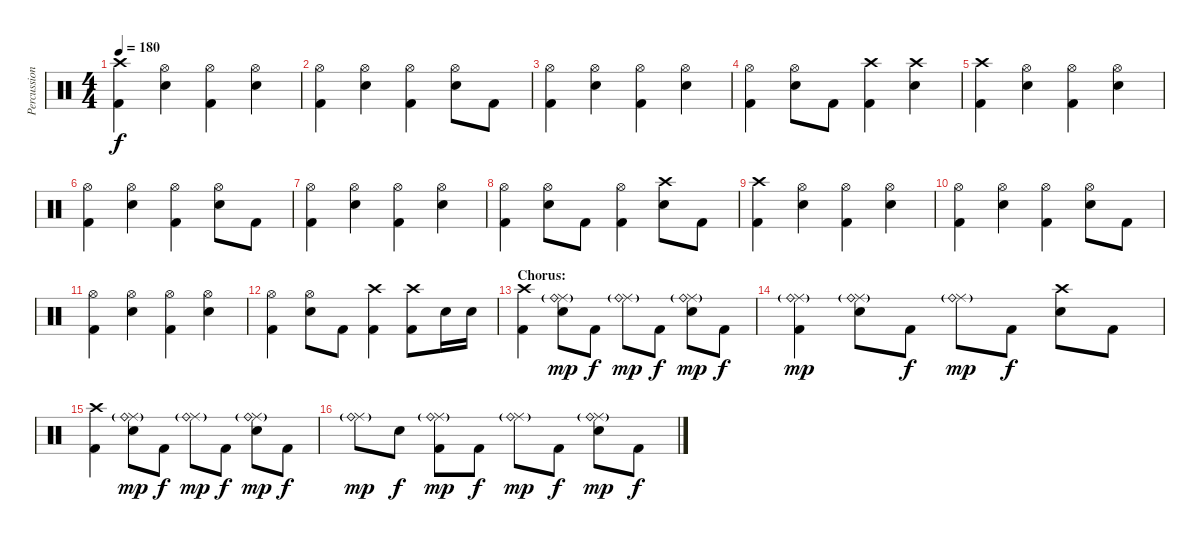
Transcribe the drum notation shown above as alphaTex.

\track ("Percussion" "Percussion") {instrument percussion}
\staff {score}
\articulation defaults
\ts (4 4)
\tempo 180
\clef neutral
\ks c
("Crash high (hit)" "Kick (hit) 2").4{dy f} ("Hi-Hat (open)" "Electric Snare (hit)").4 ("Hi-Hat (open)" "Kick (hit) 2").4 ("Hi-Hat (open)" "Electric Snare (hit)").4 |
("Hi-Hat (open)" "Kick (hit) 2").4 ("Hi-Hat (open)" "Electric Snare (hit)").4 ("Hi-Hat (open)" "Kick (hit) 2").4 ("Hi-Hat (open)" "Electric Snare (hit)").8 "Kick (hit) 2".8 |
("Hi-Hat (open)" "Kick (hit) 2").4 ("Hi-Hat (open)" "Electric Snare (hit)").4 ("Hi-Hat (open)" "Kick (hit) 2").4 ("Hi-Hat (open)" "Electric Snare (hit)").4 |
("Hi-Hat (open)" "Kick (hit) 2").4 ("Hi-Hat (open)" "Electric Snare (hit)").8 "Kick (hit) 2".8 ("Crash high (hit)" "Kick (hit) 2").4 ("Crash high (hit)" "Electric Snare (hit)").4 |
("Crash high (hit)" "Kick (hit) 2").4 ("Hi-Hat (open)" "Electric Snare (hit)").4 ("Hi-Hat (open)" "Kick (hit) 2").4 ("Hi-Hat (open)" "Electric Snare (hit)").4 |
("Hi-Hat (open)" "Kick (hit) 2").4 ("Hi-Hat (open)" "Electric Snare (hit)").4 ("Hi-Hat (open)" "Kick (hit) 2").4 ("Hi-Hat (open)" "Electric Snare (hit)").8 "Kick (hit) 2".8 |
("Hi-Hat (open)" "Kick (hit) 2").4 ("Hi-Hat (open)" "Electric Snare (hit)").4 ("Hi-Hat (open)" "Kick (hit) 2").4 ("Hi-Hat (open)" "Electric Snare (hit)").4 |
("Hi-Hat (open)" "Kick (hit) 2").4 ("Hi-Hat (open)" "Electric Snare (hit)").8 "Kick (hit) 2".8 ("Hi-Hat (open)" "Kick (hit) 2").4 ("Crash high (hit)" "Electric Snare (hit)").8 "Kick (hit) 2".8 |
("Crash high (hit)" "Kick (hit) 2").4 ("Hi-Hat (open)" "Electric Snare (hit)").4 ("Hi-Hat (open)" "Kick (hit) 2").4 ("Hi-Hat (open)" "Electric Snare (hit)").4 |
("Hi-Hat (open)" "Kick (hit) 2").4 ("Hi-Hat (open)" "Electric Snare (hit)").4 ("Hi-Hat (open)" "Kick (hit) 2").4 ("Hi-Hat (open)" "Electric Snare (hit)").8 "Kick (hit) 2".8 |
("Hi-Hat (open)" "Kick (hit) 2").4 ("Hi-Hat (open)" "Electric Snare (hit)").4 ("Hi-Hat (open)" "Kick (hit) 2").4 ("Hi-Hat (open)" "Electric Snare (hit)").4 |
("Hi-Hat (open)" "Kick (hit) 2").4 ("Hi-Hat (open)" "Electric Snare (hit)").8 "Kick (hit) 2".8 ("Crash high (hit)" "Kick (hit) 2").4 ("Crash high (hit)" "Kick (hit) 2").8 "Electric Snare (hit)".16 "Electric Snare (hit)".16 |
\section ("" "Chorus:")
("Crash high (hit)" "Kick (hit) 2").4 ("Ride (middle)" "Ride (bell)"{g} "Electric Snare (hit)").8{dy mp} "Kick (hit) 2".8{dy f} ("Ride (middle)" "Ride (bell)"{g}).8{dy mp} "Kick (hit) 2".8{dy f} ("Ride (middle)" "Ride (bell)"{g} "Electric Snare (hit)").8{dy mp} "Kick (hit) 2".8{dy f} |
("Ride (middle)" "Ride (bell)"{g} "Kick (hit) 2").4{dy mp} ("Ride (middle)" "Ride (bell)"{g} "Electric Snare (hit)").8 "Kick (hit) 2".8{dy f} ("Ride (middle)" "Ride (bell)"{g}).8{dy mp} "Kick (hit) 2".8{dy f} ("Crash high (hit)" "Electric Snare (hit)").8 "Kick (hit) 2".8 |
("Crash high (hit)" "Kick (hit) 2").4 ("Ride (middle)" "Ride (bell)"{g} "Electric Snare (hit)").8{dy mp} "Kick (hit) 2".8{dy f} ("Ride (middle)" "Ride (bell)"{g}).8{dy mp} "Kick (hit) 2".8{dy f} ("Ride (middle)" "Ride (bell)"{g} "Electric Snare (hit)").8{dy mp} "Kick (hit) 2".8{dy f} |
("Ride (middle)" "Ride (bell)"{g}).8{dy mp} "Electric Snare (hit)".8{dy f} ("Ride (middle)" "Ride (bell)"{g} "Kick (hit) 2").8{dy mp} "Kick (hit) 2".8{dy f} ("Ride (middle)" "Ride (bell)"{g}).8{dy mp} "Kick (hit) 2".8{dy f} ("Ride (middle)" "Ride (bell)"{g} "Electric Snare (hit)").8{dy mp} "Kick (hit) 2".8{dy f}
